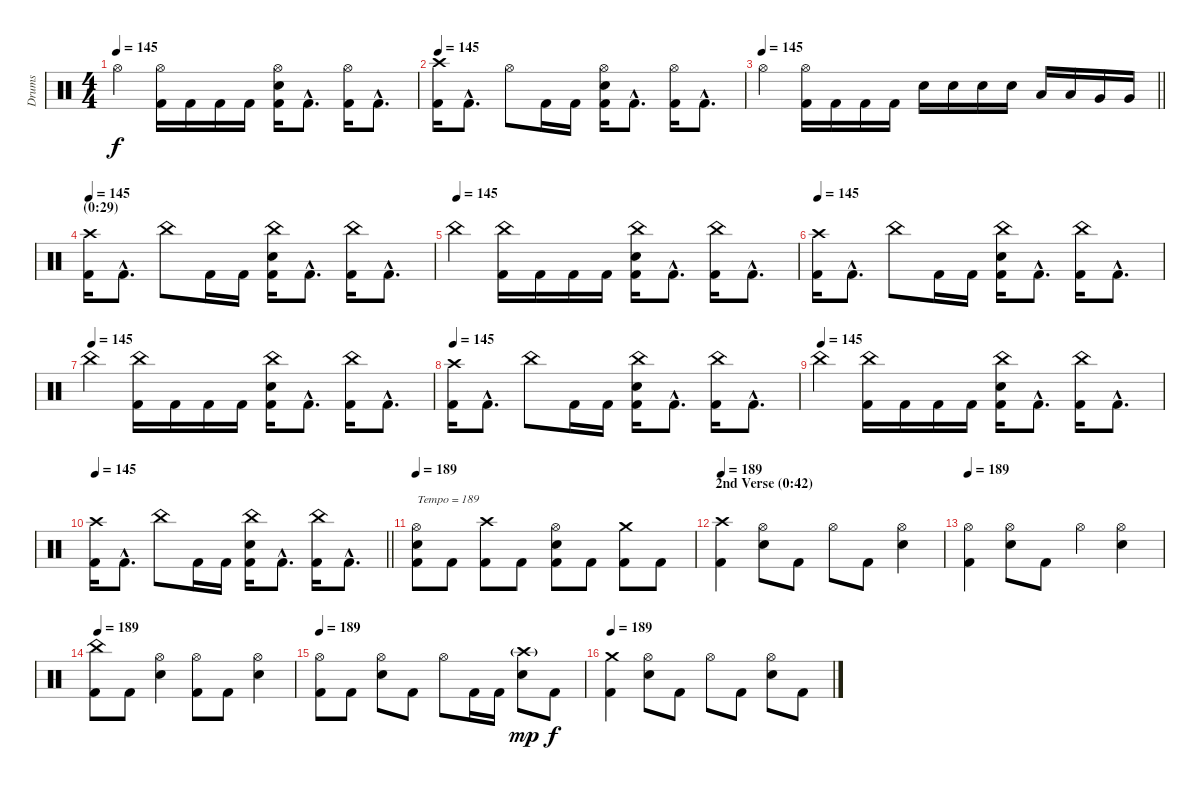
\track ("Drums" "Drums") {instrument percussion}
\staff {score}
\articulation defaults
\ts (4 4)
\tempo 145
\clef neutral
\ks c "Hi-Hat (open)".4{dy f}
("Hi-Hat (open)" "Kick (hit) 2").16 "Kick (hit) 2".16 "Kick (hit) 2".16 "Kick (hit) 2".16 ("Hi-Hat (open)" "Snare (hit) 2" "Kick (hit) 2").16 "Kick (hit) 2"{hac}.8{d} ("Hi-Hat (open)" "Kick (hit) 2").16 "Kick (hit) 2"{hac}.8{d} |
\tempo 145
("Crash high (hit)" "Kick (hit) 2").16 "Kick (hit) 2"{hac}.8{d} "Hi-Hat (open)".8 "Kick (hit) 2".16 "Kick (hit) 2".16 ("Hi-Hat (open)" "Snare (hit) 2" "Kick (hit) 2").16 "Kick (hit) 2"{hac}.8{d} ("Hi-Hat (open)" "Kick (hit) 2").16 "Kick (hit) 2"{hac}.8{d} |
\tempo 145
\barLineRight lightlight "Hi-Hat (open)".4
("Hi-Hat (open)" "Kick (hit) 2").16 "Kick (hit) 2".16 "Kick (hit) 2".16 "Kick (hit) 2".16 "Snare (hit) 2".16 "Snare (hit) 2".16 "Snare (hit) 2".16 "Snare (hit) 2".16 "Low Tom (hit)".16 "Low Tom (hit)".16 "Very Low Tom (hit)".16 "Very Low Tom (hit)".16 |
\section ("" "(0:29)")
\tempo 145
("Crash high (hit)" "Kick (hit) 2").16 "Kick (hit) 2"{hac}.8{d} "China (hit)".8 "Kick (hit) 2".16 "Kick (hit) 2".16 ("China (hit)" "Snare (hit) 2" "Kick (hit) 2").16 "Kick (hit) 2"{hac}.8{d} ("China (hit)" "Kick (hit) 2").16 "Kick (hit) 2"{hac}.8{d} |
\tempo (145)
"China (hit)".4 ("China (hit)" "Kick (hit) 2").16 "Kick (hit) 2".16 "Kick (hit) 2".16 "Kick (hit) 2".16 ("China (hit)" "Snare (hit) 2" "Kick (hit) 2").16 "Kick (hit) 2"{hac}.8{d} ("China (hit)" "Kick (hit) 2").16 "Kick (hit) 2"{hac}.8{d} |
\tempo 145
("Crash high (hit)" "Kick (hit) 2").16 "Kick (hit) 2"{hac}.8{d} "China (hit)".8 "Kick (hit) 2".16 "Kick (hit) 2".16 ("China (hit)" "Snare (hit) 2" "Kick (hit) 2").16 "Kick (hit) 2"{hac}.8{d} ("China (hit)" "Kick (hit) 2").16 "Kick (hit) 2"{hac}.8{d} |
\tempo (145)
"China (hit)".4 ("China (hit)" "Kick (hit) 2").16 "Kick (hit) 2".16 "Kick (hit) 2".16 "Kick (hit) 2".16 ("China (hit)" "Snare (hit) 2" "Kick (hit) 2").16 "Kick (hit) 2"{hac}.8{d} ("China (hit)" "Kick (hit) 2").16 "Kick (hit) 2"{hac}.8{d} |
\tempo 145
("Crash high (hit)" "Kick (hit) 2").16 "Kick (hit) 2"{hac}.8{d} "China (hit)".8 "Kick (hit) 2".16 "Kick (hit) 2".16 ("China (hit)" "Snare (hit) 2" "Kick (hit) 2").16 "Kick (hit) 2"{hac}.8{d} ("China (hit)" "Kick (hit) 2").16 "Kick (hit) 2"{hac}.8{d} |
\tempo (145)
"China (hit)".4 ("China (hit)" "Kick (hit) 2").16 "Kick (hit) 2".16 "Kick (hit) 2".16 "Kick (hit) 2".16 ("China (hit)" "Snare (hit) 2" "Kick (hit) 2").16 "Kick (hit) 2"{hac}.8{d} ("China (hit)" "Kick (hit) 2").16 "Kick (hit) 2"{hac}.8{d} |
\tempo 145
\barLineRight lightlight
("Crash high (hit)" "Kick (hit) 2").16 "Kick (hit) 2"{hac}.8{d} "China (hit)".8 "Kick (hit) 2".16 "Kick (hit) 2".16 ("China (hit)" "Snare (hit) 2" "Kick (hit) 2").16 "Kick (hit) 2"{hac}.8{d} ("China (hit)" "Kick (hit) 2").16 "Kick (hit) 2"{hac}.8{d} |
\tempo 189
("Hi-Hat (open)" "Snare (hit) 2" "Kick (hit) 2").8{txt "Tempo = 189"} "Kick (hit) 2".8 ("Crash high (hit)" "Kick (hit) 2").8 "Kick (hit) 2".8 ("Hi-Hat (open)" "Snare (hit) 2" "Kick (hit) 2").8 "Kick (hit) 2".8 ("Crash medium (hit)" "Kick (hit) 2").8 "Kick (hit) 2".8 |
\section ("" "2nd Verse (0:42)")
\tempo 189
("Crash high (hit)" "Kick (hit) 2").4 ("Hi-Hat (open)" "Snare (hit) 2").8 "Kick (hit) 2".8 "Hi-Hat (open)".8 "Kick (hit) 2".8 ("Hi-Hat (open)" "Snare (hit) 2").4 |
\tempo 189
("Hi-Hat (open)" "Kick (hit) 2").4 ("Hi-Hat (open)" "Snare (hit) 2").8 "Kick (hit) 2".8 "Hi-Hat (open)".4 ("Hi-Hat (open)" "Snare (hit) 2").4 |
\tempo 189
("China (hit)" "Kick (hit) 2").8 "Kick (hit) 2".8 ("Hi-Hat (open)" "Snare (hit) 2").4 ("Hi-Hat (open)" "Kick (hit) 2").8 "Kick (hit) 2".8 ("Hi-Hat (open)" "Snare (hit) 2").4 |
\tempo 189
("Hi-Hat (open)" "Kick (hit) 2").8 "Kick (hit) 2".8 ("Hi-Hat (open)" "Snare (hit) 2").8 "Kick (hit) 2".8 "Hi-Hat (open)".8 "Kick (hit) 2".16 "Kick (hit) 2".16 ("Crash high (hit)"{g} "Snare (hit) 2").8{dy mp} "Kick (hit) 2".8{dy f} |
\tempo 189
("Crash medium (hit)" "Kick (hit) 2").4 ("Hi-Hat (open)" "Snare (hit) 2").8 "Kick (hit) 2".8 "Hi-Hat (open)".8 "Kick (hit) 2".8 ("Hi-Hat (open)" "Snare (hit) 2").8 "Kick (hit) 2".8
